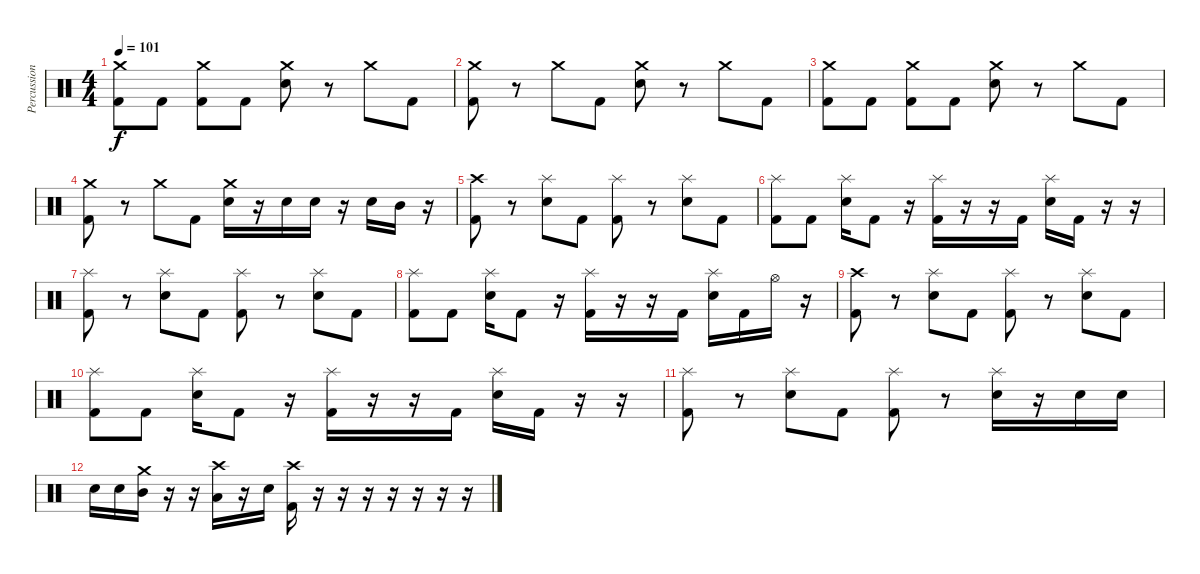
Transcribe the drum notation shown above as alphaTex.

\track ("Percussion" "Percussion") {instrument percussion}
\staff {score}
\articulation defaults
\ts (4 4)
\tempo 101
\clef neutral
\ks c
("Crash medium (hit)" "Kick (hit) 2").8{dy f} "Kick (hit) 2".8 ("Crash medium (hit)" "Kick (hit) 2").8 "Kick (hit) 2".8 ("Crash medium (hit)" "Electric Snare (hit)").8 r.8 "Crash medium (hit)".8 "Kick (hit) 2".8 |
("Crash medium (hit)" "Kick (hit) 2").8 r.8 "Crash medium (hit)".8 "Kick (hit) 2".8 ("Crash medium (hit)" "Electric Snare (hit)").8 r.8 "Crash medium (hit)".8 "Kick (hit) 2".8 |
("Crash medium (hit)" "Kick (hit) 2").8 "Kick (hit) 2".8 ("Crash medium (hit)" "Kick (hit) 2").8 "Kick (hit) 2".8 ("Crash medium (hit)" "Electric Snare (hit)").8 r.8 "Crash medium (hit)".8 "Kick (hit) 2".8 |
("Crash medium (hit)" "Kick (hit) 2").8 r.8 "Crash medium (hit)".8 "Kick (hit) 2".8 ("Crash medium (hit)" "Electric Snare (hit)").16 r.16 "Electric Snare (hit)".16 "Electric Snare (hit)".16 r.16 "Electric Snare (hit)".16 "Mid Tom (hit)".16 r.16 |
("Crash high (hit)" "Kick (hit) 2").8 r.8 ("Splash (hit)" "Electric Snare (hit)").8 "Kick (hit) 2".8 ("Splash (hit)" "Kick (hit) 2").8 r.8 ("Splash (hit)" "Electric Snare (hit)").8 "Kick (hit) 2".8 |
("Splash (hit)" "Kick (hit) 2").8 "Kick (hit) 2".8 ("Splash (hit)" "Electric Snare (hit)").16 "Kick (hit) 2".8 r.16 ("Splash (hit)" "Kick (hit) 2").16 r.16 r.16 "Kick (hit) 2".16 ("Splash (hit)" "Electric Snare (hit)").16 "Kick (hit) 2".16 r.16 r.16 |
("Splash (hit)" "Kick (hit) 2").8 r.8 ("Splash (hit)" "Electric Snare (hit)").8 "Kick (hit) 2".8 ("Splash (hit)" "Kick (hit) 2").8 r.8 ("Splash (hit)" "Electric Snare (hit)").8 "Kick (hit) 2".8 |
("Splash (hit)" "Kick (hit) 2").8 "Kick (hit) 2".8 ("Splash (hit)" "Electric Snare (hit)").16 "Kick (hit) 2".8 r.16 ("Splash (hit)" "Kick (hit) 2").16 r.16 r.16 "Kick (hit) 2".16 ("Splash (hit)" "Electric Snare (hit)").16 "Kick (hit) 2".16 "Hi-Hat (open)".16 r.16 |
("Crash high (hit)" "Kick (hit) 2").8 r.8 ("Splash (hit)" "Electric Snare (hit)").8 "Kick (hit) 2".8 ("Splash (hit)" "Kick (hit) 2").8 r.8 ("Splash (hit)" "Electric Snare (hit)").8 "Kick (hit) 2".8 |
("Splash (hit)" "Kick (hit) 2").8 "Kick (hit) 2".8 ("Splash (hit)" "Electric Snare (hit)").16 "Kick (hit) 2".8 r.16 ("Splash (hit)" "Kick (hit) 2").16 r.16 r.16 "Kick (hit) 2".16 ("Splash (hit)" "Electric Snare (hit)").16 "Kick (hit) 2".16 r.16 r.16 |
("Splash (hit)" "Kick (hit) 2").8 r.8 ("Splash (hit)" "Electric Snare (hit)").8 "Kick (hit) 2".8 ("Splash (hit)" "Kick (hit) 2").8 r.8 ("Splash (hit)" "Electric Snare (hit)").16 r.16 "Electric Snare (hit)".16 "Electric Snare (hit)".16 |
"Electric Snare (hit)".16 "Electric Snare (hit)".16 ("Crash medium (hit)" "Mid Tom (hit)").16 r.16 r.16 ("Crash high (hit)" "Low Tom (hit)").16 r.16 "Electric Snare (hit)".16 ("Crash high (hit)" "Kick (hit) 2").16 r.16 r.16 r.16 r.16 r.16 r.16 r.16
